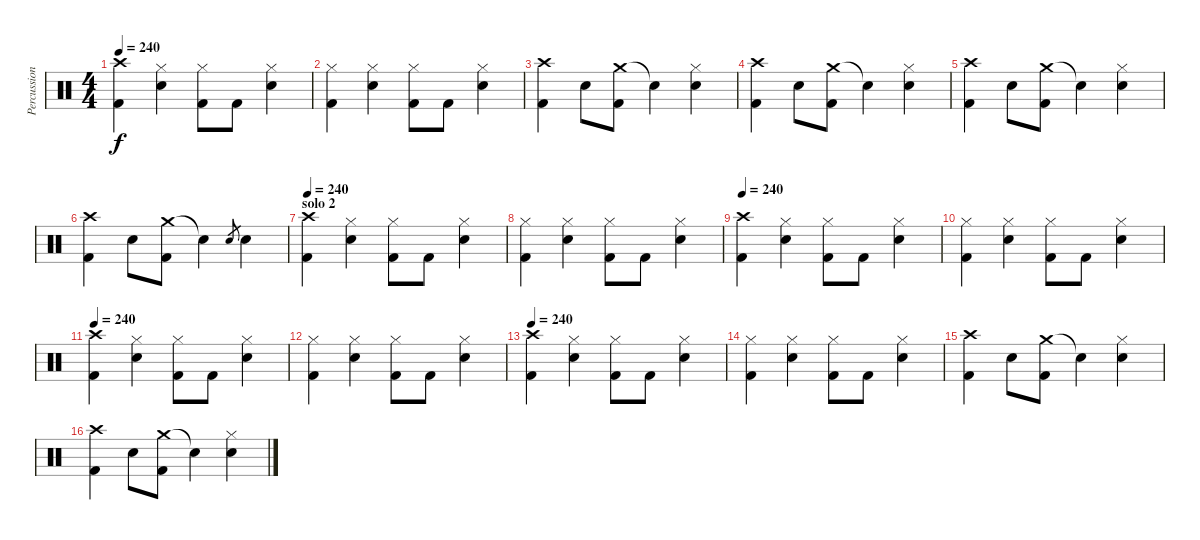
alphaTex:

\track ("Percussions" "Percussion") {instrument percussion}
\staff {score}
\articulation defaults
\ts (4 4)
\tempo 240
\clef neutral
\ks c
("Crash high (hit)" "Kick (hit) 2").4{dy f} ("Hi-Hat (closed)" "Electric Snare (hit)").4 ("Hi-Hat (closed)" "Kick (hit) 2").8 "Kick (hit) 2".8 ("Hi-Hat (closed)" "Electric Snare (hit)").4 |
("Hi-Hat (closed)" "Kick (hit) 2").4 ("Hi-Hat (closed)" "Electric Snare (hit)").4 ("Hi-Hat (closed)" "Kick (hit) 2").8 "Kick (hit) 2".8 ("Hi-Hat (closed)" "Electric Snare (hit)").4 |
("Crash high (hit)" "Kick (hit) 2").4 "Electric Snare (hit)".8 ("Crash medium (hit)" "Kick (hit) 2").8 "Snare (hit)"{t}.4 ("Hi-Hat (closed)" "Electric Snare (hit)").4 |
("Crash high (hit)" "Kick (hit) 2").4 "Electric Snare (hit)".8 ("Crash medium (hit)" "Kick (hit) 2").8 "Snare (hit)"{t}.4 ("Hi-Hat (closed)" "Electric Snare (hit)").4 |
("Crash high (hit)" "Kick (hit) 2").4 "Electric Snare (hit)".8 ("Crash medium (hit)" "Kick (hit) 2").8 "Snare (hit)"{t}.4 ("Hi-Hat (closed)" "Electric Snare (hit)").4 |
("Crash high (hit)" "Kick (hit) 2").4 "Electric Snare (hit)".8 ("Crash medium (hit)" "Kick (hit) 2").8 "Snare (hit)"{t}.4 "Electric Snare (hit)".8{gr} "Electric Snare (hit)".4 |
\section ("" "solo 2")
\tempo 240
("Crash high (hit)" "Kick (hit) 2").4 ("Hi-Hat (closed)" "Electric Snare (hit)").4 ("Hi-Hat (closed)" "Kick (hit) 2").8 "Kick (hit) 2".8 ("Hi-Hat (closed)" "Electric Snare (hit)").4 |
("Hi-Hat (closed)" "Kick (hit) 2").4 ("Hi-Hat (closed)" "Electric Snare (hit)").4 ("Hi-Hat (closed)" "Kick (hit) 2").8 "Kick (hit) 2".8 ("Hi-Hat (closed)" "Electric Snare (hit)").4 |
\tempo 240
("Crash high (hit)" "Kick (hit) 2").4 ("Hi-Hat (closed)" "Electric Snare (hit)").4 ("Hi-Hat (closed)" "Kick (hit) 2").8 "Kick (hit) 2".8 ("Hi-Hat (closed)" "Electric Snare (hit)").4 |
("Hi-Hat (closed)" "Kick (hit) 2").4 ("Hi-Hat (closed)" "Electric Snare (hit)").4 ("Hi-Hat (closed)" "Kick (hit) 2").8 "Kick (hit) 2".8 ("Hi-Hat (closed)" "Electric Snare (hit)").4 |
\tempo 240
("Crash high (hit)" "Kick (hit) 2").4 ("Hi-Hat (closed)" "Electric Snare (hit)").4 ("Hi-Hat (closed)" "Kick (hit) 2").8 "Kick (hit) 2".8 ("Hi-Hat (closed)" "Electric Snare (hit)").4 |
("Hi-Hat (closed)" "Kick (hit) 2").4 ("Hi-Hat (closed)" "Electric Snare (hit)").4 ("Hi-Hat (closed)" "Kick (hit) 2").8 "Kick (hit) 2".8 ("Hi-Hat (closed)" "Electric Snare (hit)").4 |
\tempo 240
("Crash high (hit)" "Kick (hit) 2").4 ("Hi-Hat (closed)" "Electric Snare (hit)").4 ("Hi-Hat (closed)" "Kick (hit) 2").8 "Kick (hit) 2".8 ("Hi-Hat (closed)" "Electric Snare (hit)").4 |
("Hi-Hat (closed)" "Kick (hit) 2").4 ("Hi-Hat (closed)" "Electric Snare (hit)").4 ("Hi-Hat (closed)" "Kick (hit) 2").8 "Kick (hit) 2".8 ("Hi-Hat (closed)" "Electric Snare (hit)").4 |
("Crash high (hit)" "Kick (hit) 2").4 "Electric Snare (hit)".8 ("Crash medium (hit)" "Kick (hit) 2").8 "Snare (hit)"{t}.4 ("Hi-Hat (closed)" "Electric Snare (hit)").4 |
("Crash high (hit)" "Kick (hit) 2").4 "Electric Snare (hit)".8 ("Crash medium (hit)" "Kick (hit) 2").8 "Snare (hit)"{t}.4 ("Hi-Hat (closed)" "Electric Snare (hit)").4
